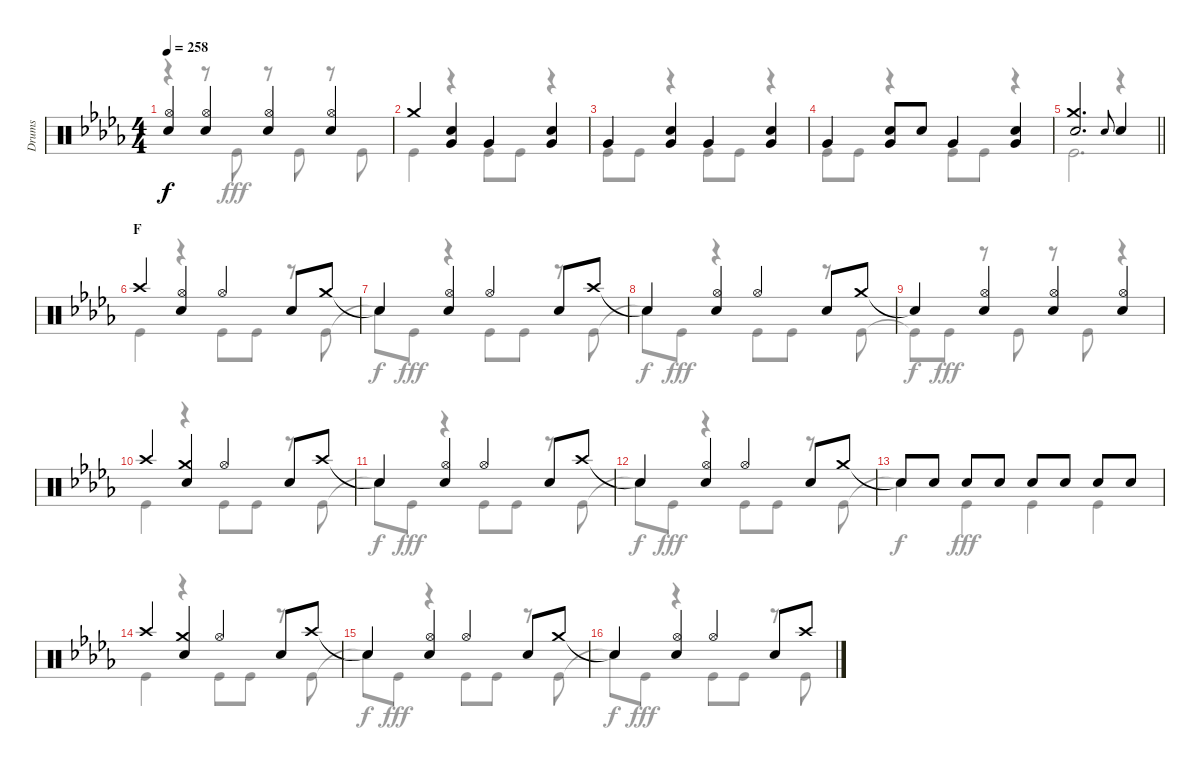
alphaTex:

\track ("Drums" "Drums") {instrument percussion}
\staff {score}
\articulation defaults
\voice
\ts (4 4)
\tempo 258
\clef neutral
\ks db
("Hi-Hat (open)" "Snare (hit) 2").4{dy f} ("Hi-Hat (open)" "Snare (hit) 2").4 ("Hi-Hat (open)" "Snare (hit) 2").4 ("Hi-Hat (open)" "Snare (hit) 2").4 |
"Crash medium (hit)".4 ("Snare (hit) 2" "Very Low Tom (hit)").4 "Very Low Tom (hit)".4 ("Snare (hit) 2" "Very Low Tom (hit)").4 |
"Very Low Tom (hit)".4 ("Snare (hit) 2" "Very Low Tom (hit)").4 "Very Low Tom (hit)".4 ("Snare (hit) 2" "Very Low Tom (hit)").4 |
"Very Low Tom (hit)".4 ("Snare (hit) 2" "Very Low Tom (hit)").8 "Snare (hit) 2".8 "Very Low Tom (hit)".4 ("Snare (hit) 2" "Very Low Tom (hit)").4 |
\barLineRight lightlight
("Crash medium (hit)" "Snare (hit) 2").2{d} "Snare (hit) 2".8{gr onbeat} "Snare (hit) 2".4 |
\section ("" "F")
"Crash high (hit)".4 ("Hi-Hat (open)" "Snare (hit) 2").4 "Hi-Hat (open)".4 "Snare (hit) 2".8 "Crash medium (hit)".8 |
"Snare (hit)"{t}.4 ("Hi-Hat (open)" "Snare (hit) 2").4 "Hi-Hat (open)".4 "Snare (hit) 2".8 "Crash high (hit)".8 |
"Snare (hit)"{t}.4 ("Hi-Hat (open)" "Snare (hit) 2").4 "Hi-Hat (open)".4 "Snare (hit) 2".8 "Crash medium (hit)".8 |
"Snare (hit)"{t}.4 ("Hi-Hat (open)" "Snare (hit) 2").4 ("Hi-Hat (open)" "Snare (hit) 2").4 ("Hi-Hat (open)" "Snare (hit) 2").4 |
"Crash high (hit)".4 ("Crash medium (hit)" "Snare (hit) 2").4 "Hi-Hat (open)".4 "Snare (hit) 2".8 "Crash high (hit)".8 |
"Snare (hit)"{t}.4 ("Hi-Hat (open)" "Snare (hit) 2").4 "Hi-Hat (open)".4 "Snare (hit) 2".8 "Crash high (hit)".8 |
"Snare (hit)"{t}.4 ("Hi-Hat (open)" "Snare (hit) 2").4 "Hi-Hat (open)".4 "Snare (hit) 2".8 "Crash medium (hit)".8 |
"Snare (hit)"{t}.8 "Snare (hit) 2".8 "Snare (hit) 2".8 "Snare (hit) 2".8 "Snare (hit) 2".8 "Snare (hit) 2".8 "Snare (hit) 2".8 "Snare (hit) 2".8 |
"Crash high (hit)".4 ("Crash medium (hit)" "Snare (hit) 2").4 "Hi-Hat (open)".4 "Snare (hit) 2".8 "Crash high (hit)".8 |
"Snare (hit)"{t}.4 ("Hi-Hat (open)" "Snare (hit) 2").4 "Hi-Hat (open)".4 "Snare (hit) 2".8 "Crash medium (hit)".8 |
"Snare (hit)"{t}.4 ("Hi-Hat (open)" "Snare (hit) 2").4 "Hi-Hat (open)".4 "Snare (hit) 2".8 "Crash high (hit)".8
\voice
\clef neutral
\ottava regular
\simile none
\ks db
r.4{dy fff} r.8 "Kick (hit)".8 r.8 "Kick (hit)".8 r.8 "Kick (hit)".8 |
"Kick (hit)".4 r.4 "Kick (hit)".8 "Kick (hit)".8 r.4 |
"Kick (hit)".8 "Kick (hit)".8 r.4 "Kick (hit)".8 "Kick (hit)".8 r.4 |
"Kick (hit)".8 "Kick (hit)".8 r.4 "Kick (hit)".8 "Kick (hit)".8 r.4 |
\barLineRight lightlight "Kick (hit)".2{d}
r.4 |
"Kick (hit)".4 r.4 "Kick (hit)".8 "Kick (hit)".8 r.8 "Kick (hit)".8 |
"Snare (hit)"{t}.8{dy f} "Kick (hit)".8{dy fff} r.4 "Kick (hit)".8 "Kick (hit)".8 r.8 "Kick (hit)".8 |
"Snare (hit)"{t}.8{dy f} "Kick (hit)".8{dy fff} r.4 "Kick (hit)".8 "Kick (hit)".8 r.8 "Kick (hit)".8 |
"Kick (hit)"{t}.8{dy f} "Kick (hit)".8{dy fff} r.8 "Kick (hit)".8 r.8 "Kick (hit)".8 r.4 |
"Kick (hit)".4 r.4 "Kick (hit)".8 "Kick (hit)".8 r.8 "Kick (hit)".8 |
"Snare (hit)"{t}.8{dy f} "Kick (hit)".8{dy fff} r.4 "Kick (hit)".8 "Kick (hit)".8 r.8 "Kick (hit)".8 |
"Snare (hit)"{t}.8{dy f} "Kick (hit)".8{dy fff} r.4 "Kick (hit)".8 "Kick (hit)".8 r.8 "Kick (hit)".8 |
"Snare (hit)"{t}.4{dy f} "Kick (hit)".4{dy fff} "Kick (hit)".4 "Kick (hit)".4 |
"Kick (hit)".4 r.4 "Kick (hit)".8 "Kick (hit)".8 r.8 "Kick (hit)".8 |
"Snare (hit)"{t}.8{dy f} "Kick (hit)".8{dy fff} r.4 "Kick (hit)".8 "Kick (hit)".8 r.8 "Kick (hit)".8 |
"Snare (hit)"{t}.8{dy f} "Kick (hit)".8{dy fff} r.4 "Kick (hit)".8 "Kick (hit)".8 r.8 "Kick (hit)".8
